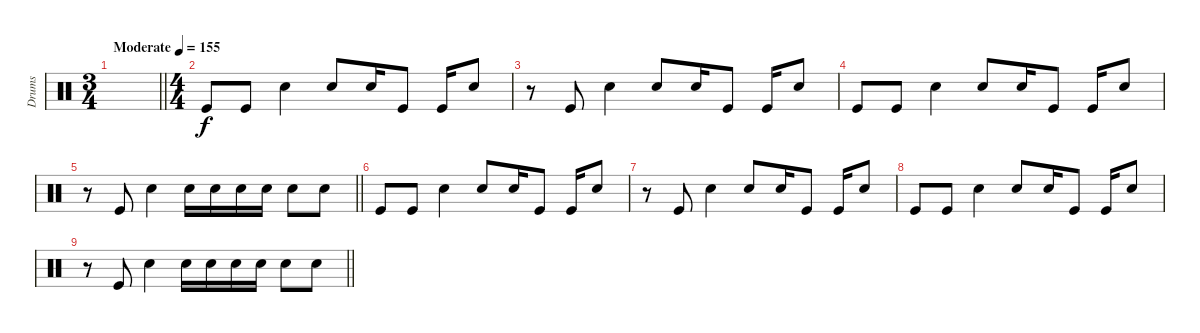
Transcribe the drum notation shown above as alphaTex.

\track ("Drums" "Drums") {instrument percussion}
\staff
\articulation defaults
\ts (3 4)
\tempo (155 "Moderate")
\clef neutral
\barLineRight lightlight
\ks c
|
\ts (4 4)
"Kick (hit)".8 "Kick (hit)".8 "Electric Snare (hit)".4 "Electric Snare (hit)".8 "Electric Snare (hit)".16 "Kick (hit)".8 "Kick (hit)".16 "Electric Snare (hit)".8 |
r.8 "Kick (hit)".8 "Electric Snare (hit)".4 "Electric Snare (hit)".8 "Electric Snare (hit)".16 "Kick (hit)".8 "Kick (hit)".16 "Electric Snare (hit)".8 |
"Kick (hit)".8 "Kick (hit)".8 "Electric Snare (hit)".4 "Electric Snare (hit)".8 "Electric Snare (hit)".16 "Kick (hit)".8 "Kick (hit)".16 "Electric Snare (hit)".8 |
\barLineRight lightlight
r.8 "Kick (hit)".8 "Electric Snare (hit)".4 "Electric Snare (hit)".16 "Electric Snare (hit)".16 "Electric Snare (hit)".16 "Electric Snare (hit)".16 "Electric Snare (hit)".8 "Electric Snare (hit)".8 |
"Kick (hit)".8 "Kick (hit)".8 "Electric Snare (hit)".4 "Electric Snare (hit)".8 "Electric Snare (hit)".16 "Kick (hit)".8 "Kick (hit)".16 "Electric Snare (hit)".8 |
r.8 "Kick (hit)".8 "Electric Snare (hit)".4 "Electric Snare (hit)".8 "Electric Snare (hit)".16 "Kick (hit)".8 "Kick (hit)".16 "Electric Snare (hit)".8 |
"Kick (hit)".8 "Kick (hit)".8 "Electric Snare (hit)".4 "Electric Snare (hit)".8 "Electric Snare (hit)".16 "Kick (hit)".8 "Kick (hit)".16 "Electric Snare (hit)".8 |
\barLineRight lightlight
r.8 "Kick (hit)".8 "Electric Snare (hit)".4 "Electric Snare (hit)".16 "Electric Snare (hit)".16 "Electric Snare (hit)".16 "Electric Snare (hit)".16 "Electric Snare (hit)".8 "Electric Snare (hit)".8
